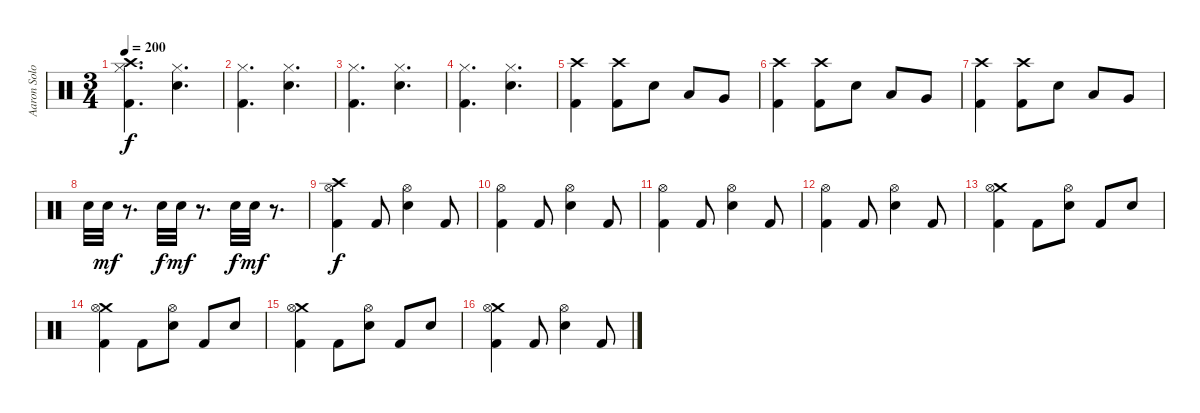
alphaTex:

\track ("Aaron Solowoniuk" "Aaron Solo") {instrument percussion}
\staff {score}
\articulation defaults
\ts (3 4)
\tempo 200
\clef neutral
\ks c
("Crash high (hit)" "Hi-Hat (closed)" "Kick (hit) 2").4{d dy f} ("Hi-Hat (closed)" "Snare (hit) 2").4{d} |
("Hi-Hat (closed)" "Kick (hit) 2").4{d} ("Hi-Hat (closed)" "Snare (hit) 2").4{d} |
("Hi-Hat (closed)" "Kick (hit) 2").4{d} ("Hi-Hat (closed)" "Snare (hit) 2").4{d} |
("Hi-Hat (closed)" "Kick (hit) 2").4{d} ("Hi-Hat (closed)" "Snare (hit) 2").4{d} |
("Crash high (hit)" "Kick (hit) 2").4 ("Crash high (hit)" "Kick (hit) 2").8 "Snare (hit) 2".8 "Low Tom (hit)".8 "Very Low Tom (hit)".8 |
("Crash high (hit)" "Kick (hit) 2").4 ("Crash high (hit)" "Kick (hit) 2").8 "Snare (hit) 2".8 "Low Tom (hit)".8 "Very Low Tom (hit)".8 |
("Crash high (hit)" "Kick (hit) 2").4 ("Crash high (hit)" "Kick (hit) 2").8 "Snare (hit) 2".8 "Low Tom (hit)".8 "Very Low Tom (hit)".8 |
"Snare (hit) 2".32 "Snare (hit) 2".32{dy mf} r.8{d} "Snare (hit) 2".32{dy f} "Snare (hit) 2".32{dy mf} r.8{d} "Snare (hit) 2".32{dy f} "Snare (hit) 2".32{dy mf} r.8{d} |
("Crash high (hit)" "Hi-Hat (open)" "Kick (hit) 2").4{dy f} "Kick (hit) 2".8 ("Hi-Hat (open)" "Snare (hit) 2").4 "Kick (hit) 2".8 |
("Hi-Hat (open)" "Kick (hit) 2").4 "Kick (hit) 2".8 ("Hi-Hat (open)" "Snare (hit) 2").4 "Kick (hit) 2".8 |
("Hi-Hat (open)" "Kick (hit) 2").4 "Kick (hit) 2".8 ("Hi-Hat (open)" "Snare (hit) 2").4 "Kick (hit) 2".8 |
("Hi-Hat (open)" "Kick (hit) 2").4 "Kick (hit) 2".8 ("Hi-Hat (open)" "Snare (hit) 2").4 "Kick (hit) 2".8 |
("Crash medium (hit)" "Hi-Hat (open)" "Kick (hit) 2").4 "Kick (hit) 2".8 ("Hi-Hat (open)" "Snare (hit) 2").8 "Kick (hit) 2".8 "Snare (hit) 2".8 |
("Crash medium (hit)" "Hi-Hat (open)" "Kick (hit) 2").4 "Kick (hit) 2".8 ("Hi-Hat (open)" "Snare (hit) 2").8 "Kick (hit) 2".8 "Snare (hit) 2".8 |
("Crash medium (hit)" "Hi-Hat (open)" "Kick (hit) 2").4 "Kick (hit) 2".8 ("Hi-Hat (open)" "Snare (hit) 2").8 "Kick (hit) 2".8 "Snare (hit) 2".8 |
("Crash medium (hit)" "Hi-Hat (open)" "Kick (hit) 2").4 "Kick (hit) 2".8 ("Hi-Hat (open)" "Snare (hit) 2").4 "Kick (hit) 2".8
